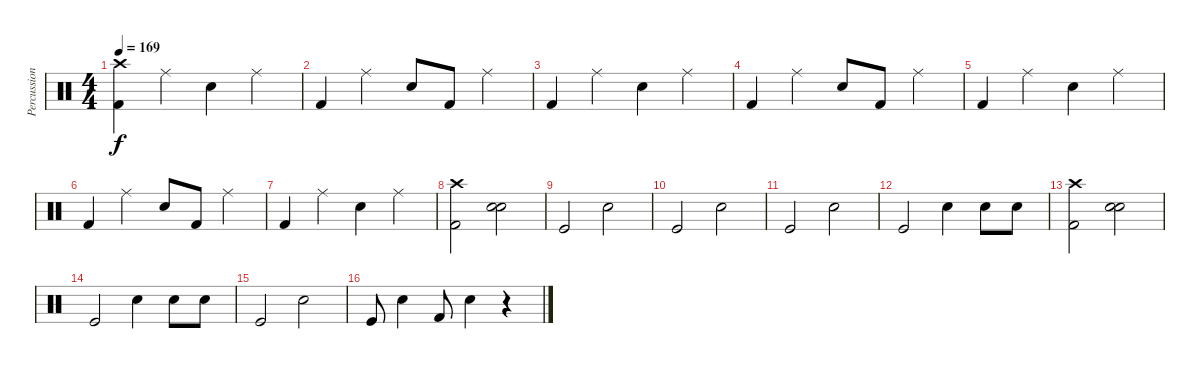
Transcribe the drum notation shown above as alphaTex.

\track ("Percussion" "Percussion") {instrument percussion}
\staff {score}
\articulation defaults
\ts (4 4)
\tempo 169
\clef neutral
\ks c
("Crash high (hit)" "Kick (hit) 2").4{dy f} "Ride (middle)".4 "Snare (hit) 2".4 "Ride (middle)".4 |
"Kick (hit) 2".4 "Ride (middle)".4 "Snare (hit) 2".8 "Kick (hit) 2".8 "Ride (middle)".4 |
"Kick (hit) 2".4 "Ride (middle)".4 "Snare (hit) 2".4 "Ride (middle)".4 |
"Kick (hit) 2".4 "Ride (middle)".4 "Snare (hit) 2".8 "Kick (hit) 2".8 "Ride (middle)".4 |
"Kick (hit) 2".4 "Ride (middle)".4 "Snare (hit) 2".4 "Ride (middle)".4 |
"Kick (hit) 2".4 "Ride (middle)".4 "Snare (hit) 2".8 "Kick (hit) 2".8 "Ride (middle)".4 |
"Kick (hit) 2".4 "Ride (middle)".4 "Snare (hit) 2".4 "Ride (middle)".4 |
("Crash high (hit)" "Kick (hit) 2").2 ("Snare (hit) 2" "Snare (hit) 2").2 |
"Kick (hit)".2 "Snare (hit) 2".2 |
"Kick (hit)".2 "Snare (hit) 2".2 |
"Kick (hit)".2 "Snare (hit) 2".2 |
"Kick (hit)".2 "Snare (hit) 2".4 "Snare (hit) 2".8 "Snare (hit) 2".8 |
("Crash high (hit)" "Kick (hit) 2").2 ("Snare (hit) 2" "Snare (hit) 2").2 |
"Kick (hit)".2 "Snare (hit) 2".4 "Snare (hit) 2".8 "Snare (hit) 2".8 |
"Kick (hit)".2 "Snare (hit) 2".2 |
"Kick (hit)".8 "Snare (hit) 2".4 "Kick (hit) 2".8 "Snare (hit) 2".4 r.4
